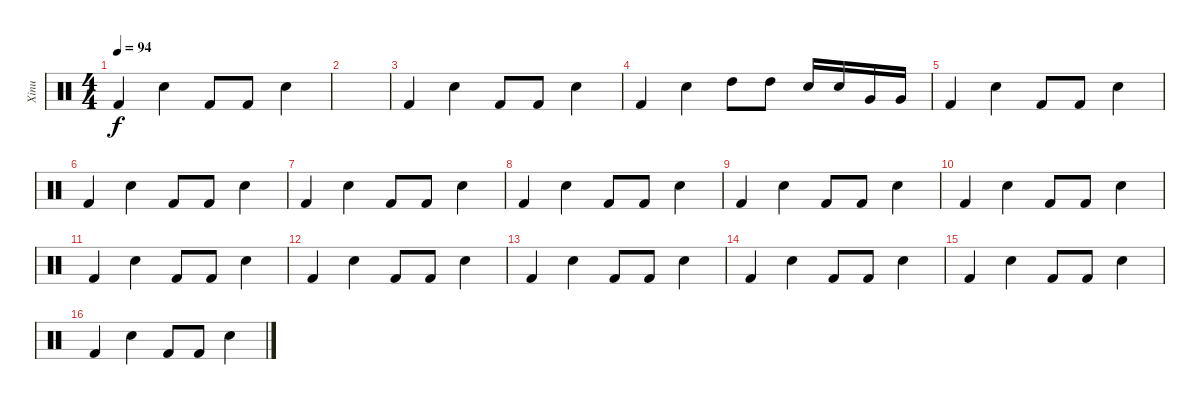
\track ("Xinu" "Xinu") {instrument percussion}
\staff {score}
\articulation defaults
\ts (4 4)
\tempo 94
\clef neutral
\ks c "Kick (hit) 2".4{dy f} "Snare (hit) 2".4 "Kick (hit) 2".8 "Kick (hit) 2".8 "Snare (hit) 2".4
|
|
"Kick (hit) 2".4 "Snare (hit) 2".4 "Kick (hit) 2".8 "Kick (hit) 2".8 "Snare (hit) 2".4 |
"Kick (hit) 2".4 "Snare (hit) 2".4 "High Tom (hit)".8 "High Tom (hit)".8 "Electric Snare (hit)".16 "Electric Snare (hit)".16 "Very Low Tom (hit)".16 "Very Low Tom (hit)".16 |
"Kick (hit) 2".4 "Snare (hit) 2".4 "Kick (hit) 2".8 "Kick (hit) 2".8 "Snare (hit) 2".4 |
"Kick (hit) 2".4 "Snare (hit) 2".4 "Kick (hit) 2".8 "Kick (hit) 2".8 "Snare (hit) 2".4 |
"Kick (hit) 2".4 "Snare (hit) 2".4 "Kick (hit) 2".8 "Kick (hit) 2".8 "Snare (hit) 2".4 |
"Kick (hit) 2".4 "Snare (hit) 2".4 "Kick (hit) 2".8 "Kick (hit) 2".8 "Snare (hit) 2".4 |
"Kick (hit) 2".4 "Snare (hit) 2".4 "Kick (hit) 2".8 "Kick (hit) 2".8 "Snare (hit) 2".4 |
"Kick (hit) 2".4 "Snare (hit) 2".4 "Kick (hit) 2".8 "Kick (hit) 2".8 "Snare (hit) 2".4 |
"Kick (hit) 2".4 "Snare (hit) 2".4 "Kick (hit) 2".8 "Kick (hit) 2".8 "Snare (hit) 2".4 |
"Kick (hit) 2".4 "Snare (hit) 2".4 "Kick (hit) 2".8 "Kick (hit) 2".8 "Snare (hit) 2".4 |
"Kick (hit) 2".4 "Snare (hit) 2".4 "Kick (hit) 2".8 "Kick (hit) 2".8 "Snare (hit) 2".4 |
"Kick (hit) 2".4 "Snare (hit) 2".4 "Kick (hit) 2".8 "Kick (hit) 2".8 "Snare (hit) 2".4 |
"Kick (hit) 2".4 "Snare (hit) 2".4 "Kick (hit) 2".8 "Kick (hit) 2".8 "Snare (hit) 2".4 |
"Kick (hit) 2".4 "Snare (hit) 2".4 "Kick (hit) 2".8 "Kick (hit) 2".8 "Snare (hit) 2".4
